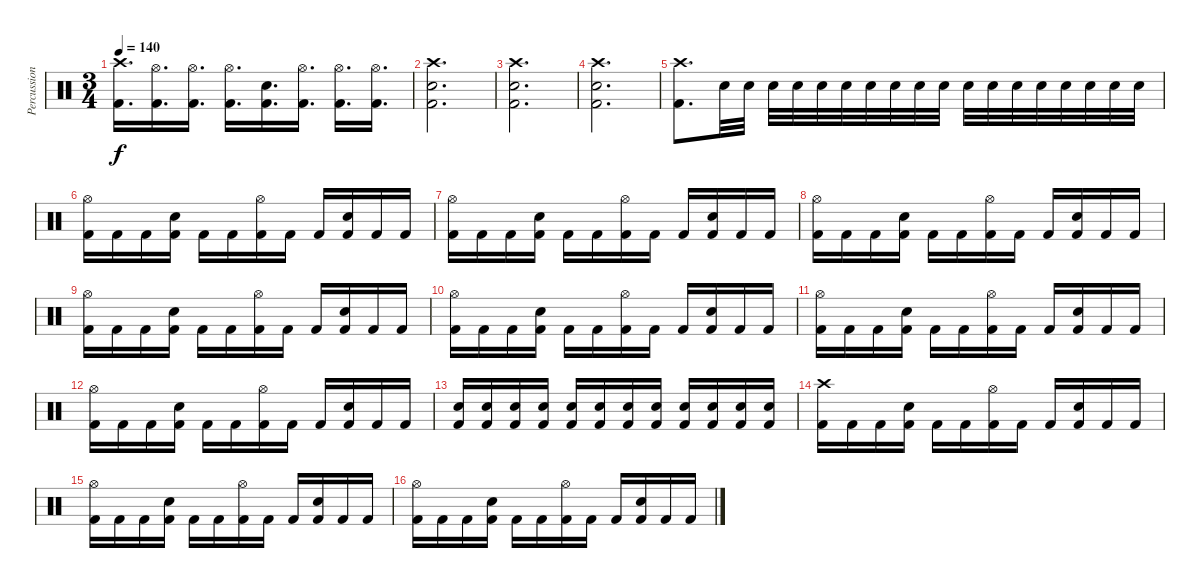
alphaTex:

\track ("Percussion" "Percussion") {instrument percussion}
\staff {score}
\articulation defaults
\ts (3 4)
\tempo 140
\clef neutral
\ks c
("Crash high (hit)" "Kick (hit) 2").16{d dy f} ("Hi-Hat (open)" "Kick (hit) 2").16{d} ("Hi-Hat (open)" "Kick (hit) 2").16{d} ("Hi-Hat (open)" "Kick (hit) 2").16{d} ("Electric Snare (hit)" "Kick (hit) 2").16{d} ("Hi-Hat (open)" "Kick (hit) 2").16{d} ("Hi-Hat (open)" "Kick (hit) 2").16{d} ("Hi-Hat (open)" "Kick (hit) 2").16{d} |
("Crash high (hit)" "Electric Snare (hit)" "Kick (hit) 2").2{d} |
("Crash high (hit)" "Electric Snare (hit)" "Kick (hit) 2").2{d} |
("Crash high (hit)" "Electric Snare (hit)" "Kick (hit) 2").2{d} |
("Crash high (hit)" "Kick (hit) 2").8{d} "Electric Snare (hit)".32 "Electric Snare (hit)".32 "Electric Snare (hit)".32 "Electric Snare (hit)".32 "Electric Snare (hit)".32 "Electric Snare (hit)".32 "Electric Snare (hit)".32 "Electric Snare (hit)".32 "Electric Snare (hit)".32 "Electric Snare (hit)".32 "Electric Snare (hit)".32 "Electric Snare (hit)".32 "Electric Snare (hit)".32 "Electric Snare (hit)".32 "Electric Snare (hit)".32 "Electric Snare (hit)".32 "Electric Snare (hit)".32 "Electric Snare (hit)".32 |
("Hi-Hat (open)" "Kick (hit) 2").16 "Kick (hit) 2".16 "Kick (hit) 2".16 ("Electric Snare (hit)" "Kick (hit) 2").16 "Kick (hit) 2".16 "Kick (hit) 2".16 ("Hi-Hat (open)" "Kick (hit) 2").16 "Kick (hit) 2".16 "Kick (hit) 2".16 ("Electric Snare (hit)" "Kick (hit) 2").16 "Kick (hit) 2".16 "Kick (hit) 2".16 |
("Hi-Hat (open)" "Kick (hit) 2").16 "Kick (hit) 2".16 "Kick (hit) 2".16 ("Electric Snare (hit)" "Kick (hit) 2").16 "Kick (hit) 2".16 "Kick (hit) 2".16 ("Hi-Hat (open)" "Kick (hit) 2").16 "Kick (hit) 2".16 "Kick (hit) 2".16 ("Electric Snare (hit)" "Kick (hit) 2").16 "Kick (hit) 2".16 "Kick (hit) 2".16 |
("Hi-Hat (open)" "Kick (hit) 2").16 "Kick (hit) 2".16 "Kick (hit) 2".16 ("Electric Snare (hit)" "Kick (hit) 2").16 "Kick (hit) 2".16 "Kick (hit) 2".16 ("Hi-Hat (open)" "Kick (hit) 2").16 "Kick (hit) 2".16 "Kick (hit) 2".16 ("Electric Snare (hit)" "Kick (hit) 2").16 "Kick (hit) 2".16 "Kick (hit) 2".16 |
("Hi-Hat (open)" "Kick (hit) 2").16 "Kick (hit) 2".16 "Kick (hit) 2".16 ("Electric Snare (hit)" "Kick (hit) 2").16 "Kick (hit) 2".16 "Kick (hit) 2".16 ("Hi-Hat (open)" "Kick (hit) 2").16 "Kick (hit) 2".16 "Kick (hit) 2".16 ("Electric Snare (hit)" "Kick (hit) 2").16 "Kick (hit) 2".16 "Kick (hit) 2".16 |
("Hi-Hat (open)" "Kick (hit) 2").16 "Kick (hit) 2".16 "Kick (hit) 2".16 ("Electric Snare (hit)" "Kick (hit) 2").16 "Kick (hit) 2".16 "Kick (hit) 2".16 ("Hi-Hat (open)" "Kick (hit) 2").16 "Kick (hit) 2".16 "Kick (hit) 2".16 ("Electric Snare (hit)" "Kick (hit) 2").16 "Kick (hit) 2".16 "Kick (hit) 2".16 |
("Hi-Hat (open)" "Kick (hit) 2").16 "Kick (hit) 2".16 "Kick (hit) 2".16 ("Electric Snare (hit)" "Kick (hit) 2").16 "Kick (hit) 2".16 "Kick (hit) 2".16 ("Hi-Hat (open)" "Kick (hit) 2").16 "Kick (hit) 2".16 "Kick (hit) 2".16 ("Electric Snare (hit)" "Kick (hit) 2").16 "Kick (hit) 2".16 "Kick (hit) 2".16 |
("Hi-Hat (open)" "Kick (hit) 2").16 "Kick (hit) 2".16 "Kick (hit) 2".16 ("Electric Snare (hit)" "Kick (hit) 2").16 "Kick (hit) 2".16 "Kick (hit) 2".16 ("Hi-Hat (open)" "Kick (hit) 2").16 "Kick (hit) 2".16 "Kick (hit) 2".16 ("Electric Snare (hit)" "Kick (hit) 2").16 "Kick (hit) 2".16 "Kick (hit) 2".16 |
("Electric Snare (hit)" "Kick (hit) 2").16 ("Electric Snare (hit)" "Kick (hit) 2").16 ("Electric Snare (hit)" "Kick (hit) 2").16 ("Electric Snare (hit)" "Kick (hit) 2").16 ("Electric Snare (hit)" "Kick (hit) 2").16 ("Electric Snare (hit)" "Kick (hit) 2").16 ("Electric Snare (hit)" "Kick (hit) 2").16 ("Electric Snare (hit)" "Kick (hit) 2").16 ("Electric Snare (hit)" "Kick (hit) 2").16 ("Electric Snare (hit)" "Kick (hit) 2").16 ("Electric Snare (hit)" "Kick (hit) 2").16 ("Electric Snare (hit)" "Kick (hit) 2").16 |
("Crash high (hit)" "Kick (hit) 2").16 "Kick (hit) 2".16 "Kick (hit) 2".16 ("Electric Snare (hit)" "Kick (hit) 2").16 "Kick (hit) 2".16 "Kick (hit) 2".16 ("Hi-Hat (open)" "Kick (hit) 2").16 "Kick (hit) 2".16 "Kick (hit) 2".16 ("Electric Snare (hit)" "Kick (hit) 2").16 "Kick (hit) 2".16 "Kick (hit) 2".16 |
("Hi-Hat (open)" "Kick (hit) 2").16 "Kick (hit) 2".16 "Kick (hit) 2".16 ("Electric Snare (hit)" "Kick (hit) 2").16 "Kick (hit) 2".16 "Kick (hit) 2".16 ("Hi-Hat (open)" "Kick (hit) 2").16 "Kick (hit) 2".16 "Kick (hit) 2".16 ("Electric Snare (hit)" "Kick (hit) 2").16 "Kick (hit) 2".16 "Kick (hit) 2".16 |
("Hi-Hat (open)" "Kick (hit) 2").16 "Kick (hit) 2".16 "Kick (hit) 2".16 ("Electric Snare (hit)" "Kick (hit) 2").16 "Kick (hit) 2".16 "Kick (hit) 2".16 ("Hi-Hat (open)" "Kick (hit) 2").16 "Kick (hit) 2".16 "Kick (hit) 2".16 ("Electric Snare (hit)" "Kick (hit) 2").16 "Kick (hit) 2".16 "Kick (hit) 2".16
